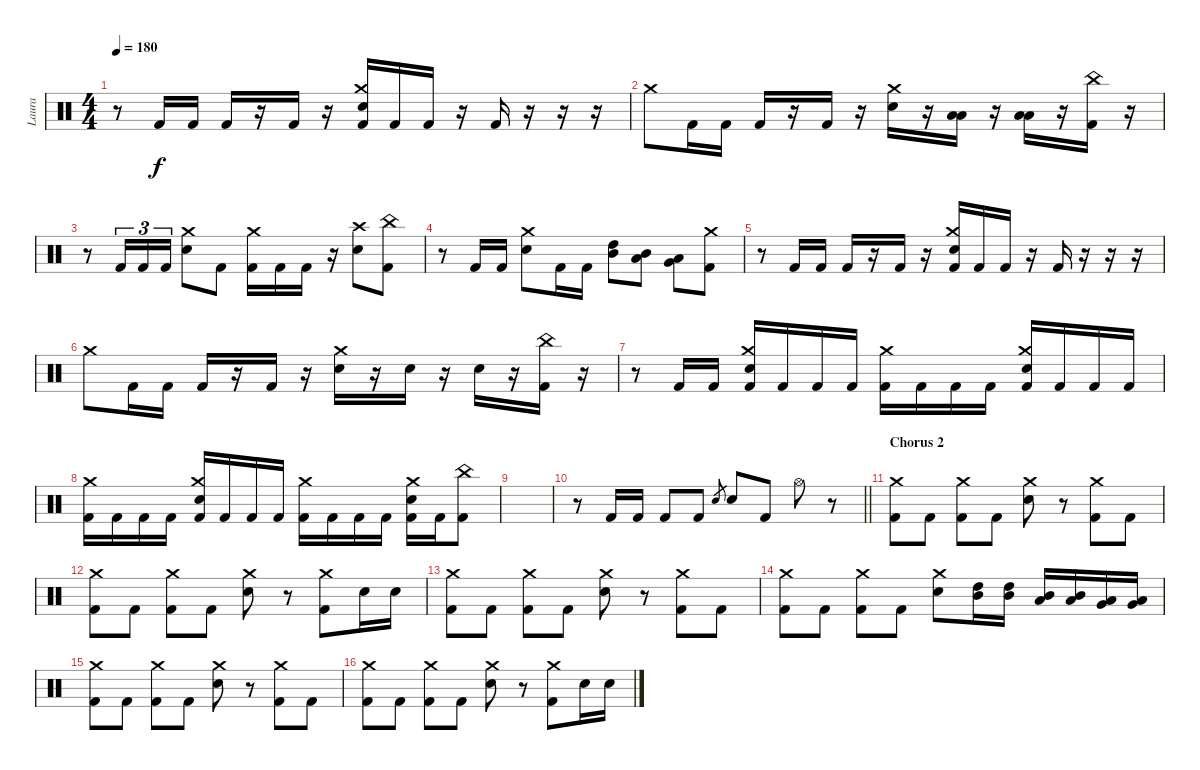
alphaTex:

\track ("Laura" "Laura") {instrument percussion}
\staff {score}
\articulation defaults
\ts (4 4)
\tempo 180
\clef neutral
\ks c
r.8{dy f} "Kick (hit) 2".16 "Kick (hit) 2".16 "Kick (hit) 2".16 r.16 "Kick (hit) 2".16 r.16 ("Crash medium (hit)" "Electric Snare (hit)" "Kick (hit) 2").16 "Kick (hit) 2".16 "Kick (hit) 2".16 r.16 "Kick (hit) 2".16 r.16 r.16 r.16 |
"Crash medium (hit)".8 "Kick (hit) 2".16 "Kick (hit) 2".16 "Kick (hit) 2".16 r.16 "Kick (hit) 2".16 r.16 ("Crash medium (hit)" "Electric Snare (hit)").16 r.16 ("Low Floor Tom (hit)" "Low Floor Tom (hit)").16 r.16 ("Low Floor Tom (hit)" "Low Floor Tom (hit)").16 r.16 ("China (hit)" "Kick (hit) 2").16 r.16 |
r.8 "Kick (hit) 2".16{tu (3 2)} "Kick (hit) 2".16{tu (3 2)} "Kick (hit) 2".16{tu (3 2)} ("Crash medium (hit)" "Electric Snare (hit)").8 "Kick (hit) 2".8 ("Crash medium (hit)" "Kick (hit) 2").16 "Kick (hit) 2".16 "Kick (hit) 2".16 r.16 ("Crash high (hit)" "Electric Snare (hit)").8 ("China (hit)" "Kick (hit) 2").8 |
r.8 "Kick (hit) 2".16 "Kick (hit) 2".16 ("Crash medium (hit)" "Electric Snare (hit)").8 "Kick (hit) 2".16 "Kick (hit) 2".16 ("High Tom (hit)" "Mid Tom (hit)").8 ("Mid Tom (hit)" "Low Tom (hit)").8 ("Low Tom (hit)" "Very Low Tom (hit)").8 ("Crash medium (hit)" "Kick (hit) 2").8 |
r.8 "Kick (hit) 2".16 "Kick (hit) 2".16 "Kick (hit) 2".16 r.16 "Kick (hit) 2".16 r.16 ("Crash medium (hit)" "Electric Snare (hit)" "Kick (hit) 2").16 "Kick (hit) 2".16 "Kick (hit) 2".16 r.16 "Kick (hit) 2".16 r.16 r.16 r.16 |
"Crash medium (hit)".8 "Kick (hit) 2".16 "Kick (hit) 2".16 "Kick (hit) 2".16 r.16 "Kick (hit) 2".16 r.16 ("Crash medium (hit)" "Electric Snare (hit)").16 r.16 "Electric Snare (hit)".16 r.16 "Electric Snare (hit)".16 r.16 ("China (hit)" "Kick (hit) 2").16 r.16 |
r.8 "Kick (hit) 2".16 "Kick (hit) 2".16 ("Crash medium (hit)" "Electric Snare (hit)" "Kick (hit) 2").16 "Kick (hit) 2".16 "Kick (hit) 2".16 "Kick (hit) 2".16 ("Crash medium (hit)" "Kick (hit) 2").16 "Kick (hit) 2".16 "Kick (hit) 2".16 "Kick (hit) 2".16 ("Crash medium (hit)" "Electric Snare (hit)" "Kick (hit) 2").16 "Kick (hit) 2".16 "Kick (hit) 2".16 "Kick (hit) 2".16 |
("Crash medium (hit)" "Kick (hit) 2").16 "Kick (hit) 2".16 "Kick (hit) 2".16 "Kick (hit) 2".16 ("Crash medium (hit)" "Electric Snare (hit)" "Kick (hit) 2").16 "Kick (hit) 2".16 "Kick (hit) 2".16 "Kick (hit) 2".16 ("Crash medium (hit)" "Kick (hit) 2").16 "Kick (hit) 2".16 "Kick (hit) 2".16 "Kick (hit) 2".16 ("Crash medium (hit)" "Electric Snare (hit)" "Kick (hit) 2").16 "Kick (hit) 2".16 ("China (hit)" "Kick (hit) 2").8 |
|
\barLineRight lightlight
r.8 "Kick (hit) 2".16 "Kick (hit) 2".16 "Kick (hit) 2".8 "Kick (hit) 2".8 "Electric Snare (hit)".8{gr} "Electric Snare (hit)".8 "Kick (hit) 2".8 "Hi-Hat (open)".8 r.8 |
\section ("" "Chorus 2")
("Crash medium (hit)" "Kick (hit) 2").8 "Kick (hit) 2".8 ("Crash medium (hit)" "Kick (hit) 2").8 "Kick (hit) 2".8 ("Crash medium (hit)" "Electric Snare (hit)").8 r.8 ("Crash medium (hit)" "Kick (hit) 2").8 "Kick (hit) 2".8 |
("Crash medium (hit)" "Kick (hit) 2").8 "Kick (hit) 2".8 ("Crash medium (hit)" "Kick (hit) 2").8 "Kick (hit) 2".8 ("Crash medium (hit)" "Electric Snare (hit)").8 r.8 ("Crash medium (hit)" "Kick (hit) 2").8 "Electric Snare (hit)".16 "Electric Snare (hit)".16 |
("Crash medium (hit)" "Kick (hit) 2").8 "Kick (hit) 2".8 ("Crash medium (hit)" "Kick (hit) 2").8 "Kick (hit) 2".8 ("Crash medium (hit)" "Electric Snare (hit)").8 r.8 ("Crash medium (hit)" "Kick (hit) 2").8 "Kick (hit) 2".8 |
("Crash medium (hit)" "Kick (hit) 2").8 "Kick (hit) 2".8 ("Crash medium (hit)" "Kick (hit) 2").8 "Kick (hit) 2".8 ("Crash medium (hit)" "Electric Snare (hit)").8 ("High Tom (hit)" "Mid Tom (hit)").16 ("High Tom (hit)" "Mid Tom (hit)").16 ("Mid Tom (hit)" "Low Tom (hit)").16 ("Mid Tom (hit)" "Low Tom (hit)").16 ("Low Tom (hit)" "Very Low Tom (hit)").16 ("Low Tom (hit)" "Very Low Tom (hit)").16 |
("Crash medium (hit)" "Kick (hit) 2").8 "Kick (hit) 2".8 ("Crash medium (hit)" "Kick (hit) 2").8 "Kick (hit) 2".8 ("Crash medium (hit)" "Electric Snare (hit)").8 r.8 ("Crash medium (hit)" "Kick (hit) 2").8 "Kick (hit) 2".8 |
("Crash medium (hit)" "Kick (hit) 2").8 "Kick (hit) 2".8 ("Crash medium (hit)" "Kick (hit) 2").8 "Kick (hit) 2".8 ("Crash medium (hit)" "Electric Snare (hit)").8 r.8 ("Crash medium (hit)" "Kick (hit) 2").8 "Electric Snare (hit)".16 "Electric Snare (hit)".16
